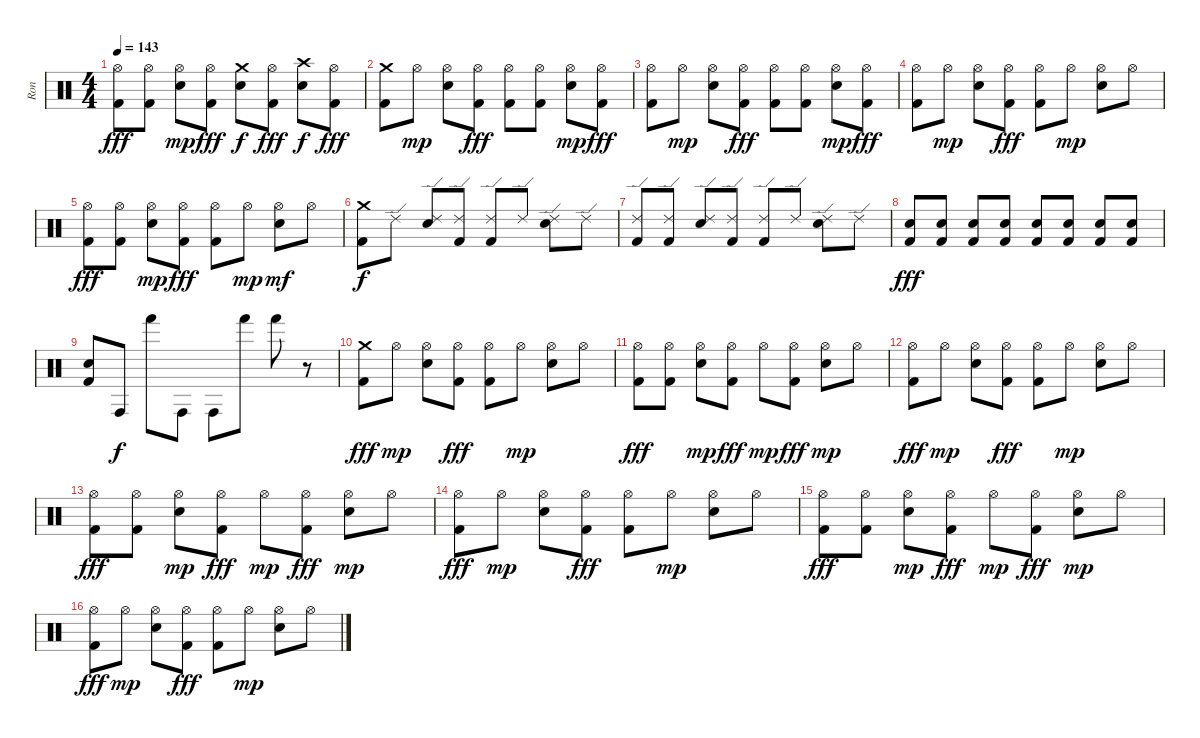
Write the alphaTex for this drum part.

\track ("Ron" "Ron") {instrument percussion}
\staff {score}
\articulation defaults
\ts (4 4)
\tempo 143
\clef neutral
\ks c
("Hi-Hat (open)" "Kick (hit) 2").8{dy fff} ("Hi-Hat (open)" "Kick (hit) 2").8 ("Hi-Hat (open)" "Snare (hit) 2").8{dy mp} ("Hi-Hat (open)" "Kick (hit) 2").8{dy fff} ("Crash medium (hit)" "Snare (hit) 2").8{dy f} ("Hi-Hat (open)" "Kick (hit) 2").8{dy fff} ("Crash high (hit)" "Snare (hit) 2").8{dy f} ("Hi-Hat (open)" "Kick (hit) 2").8{dy fff} |
("Crash medium (hit)" "Kick (hit) 2").8 "Hi-Hat (open)".8{dy mp} ("Hi-Hat (open)" "Snare (hit) 2").8 ("Hi-Hat (open)" "Kick (hit) 2").8{dy fff} ("Hi-Hat (open)" "Kick (hit) 2").8 ("Hi-Hat (open)" "Kick (hit) 2").8 ("Hi-Hat (open)" "Snare (hit) 2").8{dy mp} ("Hi-Hat (open)" "Kick (hit) 2").8{dy fff} |
("Hi-Hat (open)" "Kick (hit) 2").8 "Hi-Hat (open)".8{dy mp} ("Hi-Hat (open)" "Snare (hit) 2").8 ("Hi-Hat (open)" "Kick (hit) 2").8{dy fff} ("Hi-Hat (open)" "Kick (hit) 2").8 ("Hi-Hat (open)" "Kick (hit) 2").8 ("Hi-Hat (open)" "Snare (hit) 2").8{dy mp} ("Hi-Hat (open)" "Kick (hit) 2").8{dy fff} |
("Hi-Hat (open)" "Kick (hit) 2").8 "Hi-Hat (open)".8{dy mp} ("Hi-Hat (open)" "Snare (hit) 2").8 ("Hi-Hat (open)" "Kick (hit) 2").8{dy fff} ("Hi-Hat (open)" "Kick (hit) 2").8 "Hi-Hat (open)".8{dy mp} ("Hi-Hat (open)" "Snare (hit) 2").8 "Hi-Hat (open)".8 |
("Hi-Hat (open)" "Kick (hit) 2").8{dy fff} ("Hi-Hat (open)" "Kick (hit) 2").8 ("Hi-Hat (open)" "Snare (hit) 2").8{dy mp} ("Hi-Hat (open)" "Kick (hit) 2").8{dy fff} ("Hi-Hat (open)" "Kick (hit) 2").8 "Hi-Hat (open)".8{dy mp} ("Hi-Hat (open)" "Snare (hit) 2").8{dy mf} "Hi-Hat (open)".8 |
("Crash medium (hit)" "Kick (hit) 2").8{dy f} "Ride (edge) 2".8 ("Ride (edge) 2" "Snare (hit) 2").8 ("Ride (edge) 2" "Kick (hit) 2").8 ("Ride (edge) 2" "Kick (hit) 2").8 "Ride (edge) 2".8 ("Ride (edge) 2" "Snare (hit) 2").8 "Ride (edge) 2".8 |
("Ride (edge) 2" "Kick (hit) 2").8 ("Ride (edge) 2" "Kick (hit) 2").8 ("Ride (edge) 2" "Snare (hit) 2").8 ("Ride (edge) 2" "Kick (hit) 2").8 ("Ride (edge) 2" "Kick (hit) 2").8 "Ride (edge) 2".8 ("Ride (edge) 2" "Snare (hit) 2").8 "Ride (edge) 2".8 |
("Snare (hit) 2" "Kick (hit) 2").8{dy fff} ("Snare (hit) 2" "Kick (hit) 2").8 ("Snare (hit) 2" "Kick (hit) 2").8 ("Snare (hit) 2" "Kick (hit) 2").8 ("Snare (hit) 2" "Kick (hit) 2").8 ("Snare (hit) 2" "Kick (hit) 2").8 ("Snare (hit) 2" "Kick (hit) 2").8 ("Snare (hit) 2" "Kick (hit) 2").8 |
("Snare (hit) 2" "Kick (hit) 2").8 "Conga high (hit)".8{dy f} "Hand (hit)".8 "Conga high (hit)".8 "Conga high (hit)".8 "Hand (hit)".8 "Hand (hit)".8 r.8 |
("Crash medium (hit)" "Kick (hit) 2").8{dy fff} "Hi-Hat (open)".8{dy mp} ("Hi-Hat (open)" "Snare (hit) 2").8 ("Hi-Hat (open)" "Kick (hit) 2").8{dy fff} ("Hi-Hat (open)" "Kick (hit) 2").8 "Hi-Hat (open)".8{dy mp} ("Hi-Hat (open)" "Snare (hit) 2").8 "Hi-Hat (open)".8 |
("Hi-Hat (open)" "Kick (hit) 2").8{dy fff} ("Hi-Hat (open)" "Kick (hit) 2").8 ("Hi-Hat (open)" "Snare (hit) 2").8{dy mp} ("Hi-Hat (open)" "Kick (hit) 2").8{dy fff} "Hi-Hat (open)".8{dy mp} ("Hi-Hat (open)" "Kick (hit) 2").8{dy fff} ("Hi-Hat (open)" "Snare (hit) 2").8{dy mp} "Hi-Hat (open)".8 |
("Hi-Hat (open)" "Kick (hit) 2").8{dy fff} "Hi-Hat (open)".8{dy mp} ("Hi-Hat (open)" "Snare (hit) 2").8 ("Hi-Hat (open)" "Kick (hit) 2").8{dy fff} ("Hi-Hat (open)" "Kick (hit) 2").8 "Hi-Hat (open)".8{dy mp} ("Hi-Hat (open)" "Snare (hit) 2").8 "Hi-Hat (open)".8 |
("Hi-Hat (open)" "Kick (hit) 2").8{dy fff} ("Hi-Hat (open)" "Kick (hit) 2").8 ("Hi-Hat (open)" "Snare (hit) 2").8{dy mp} ("Hi-Hat (open)" "Kick (hit) 2").8{dy fff} "Hi-Hat (open)".8{dy mp} ("Hi-Hat (open)" "Kick (hit) 2").8{dy fff} ("Hi-Hat (open)" "Snare (hit) 2").8{dy mp} "Hi-Hat (open)".8 |
("Hi-Hat (open)" "Kick (hit) 2").8{dy fff} "Hi-Hat (open)".8{dy mp} ("Hi-Hat (open)" "Snare (hit) 2").8 ("Hi-Hat (open)" "Kick (hit) 2").8{dy fff} ("Hi-Hat (open)" "Kick (hit) 2").8 "Hi-Hat (open)".8{dy mp} ("Hi-Hat (open)" "Snare (hit) 2").8 "Hi-Hat (open)".8 |
("Hi-Hat (open)" "Kick (hit) 2").8{dy fff} ("Hi-Hat (open)" "Kick (hit) 2").8 ("Hi-Hat (open)" "Snare (hit) 2").8{dy mp} ("Hi-Hat (open)" "Kick (hit) 2").8{dy fff} "Hi-Hat (open)".8{dy mp} ("Hi-Hat (open)" "Kick (hit) 2").8{dy fff} ("Hi-Hat (open)" "Snare (hit) 2").8{dy mp} "Hi-Hat (open)".8 |
("Hi-Hat (open)" "Kick (hit) 2").8{dy fff} "Hi-Hat (open)".8{dy mp} ("Hi-Hat (open)" "Snare (hit) 2").8 ("Hi-Hat (open)" "Kick (hit) 2").8{dy fff} ("Hi-Hat (open)" "Kick (hit) 2").8 "Hi-Hat (open)".8{dy mp} ("Hi-Hat (open)" "Snare (hit) 2").8 "Hi-Hat (open)".8
